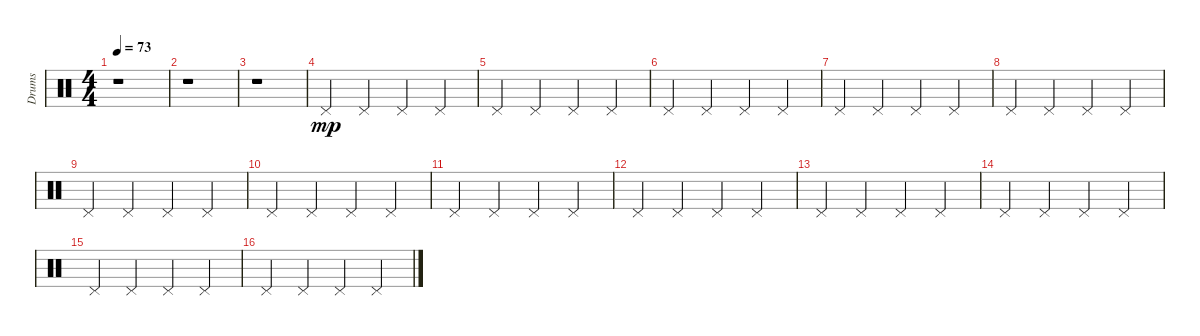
\track ("Drums" "Drums") {instrument percussion}
\staff {score}
\articulation defaults
\ts (4 4)
\tempo 73
\clef neutral
\ks c
r.1{dy mp} |
r.1 |
r.1 |
"Pedal Hi-Hat (hit)".4 "Pedal Hi-Hat (hit)".4 "Pedal Hi-Hat (hit)".4 "Pedal Hi-Hat (hit)".4 |
"Pedal Hi-Hat (hit)".4 "Pedal Hi-Hat (hit)".4 "Pedal Hi-Hat (hit)".4 "Pedal Hi-Hat (hit)".4 |
"Pedal Hi-Hat (hit)".4 "Pedal Hi-Hat (hit)".4 "Pedal Hi-Hat (hit)".4 "Pedal Hi-Hat (hit)".4 |
"Pedal Hi-Hat (hit)".4 "Pedal Hi-Hat (hit)".4 "Pedal Hi-Hat (hit)".4 "Pedal Hi-Hat (hit)".4 |
"Pedal Hi-Hat (hit)".4 "Pedal Hi-Hat (hit)".4 "Pedal Hi-Hat (hit)".4 "Pedal Hi-Hat (hit)".4 |
"Pedal Hi-Hat (hit)".4 "Pedal Hi-Hat (hit)".4 "Pedal Hi-Hat (hit)".4 "Pedal Hi-Hat (hit)".4 |
"Pedal Hi-Hat (hit)".4 "Pedal Hi-Hat (hit)".4 "Pedal Hi-Hat (hit)".4 "Pedal Hi-Hat (hit)".4 |
"Pedal Hi-Hat (hit)".4 "Pedal Hi-Hat (hit)".4 "Pedal Hi-Hat (hit)".4 "Pedal Hi-Hat (hit)".4 |
"Pedal Hi-Hat (hit)".4 "Pedal Hi-Hat (hit)".4 "Pedal Hi-Hat (hit)".4 "Pedal Hi-Hat (hit)".4 |
"Pedal Hi-Hat (hit)".4 "Pedal Hi-Hat (hit)".4 "Pedal Hi-Hat (hit)".4 "Pedal Hi-Hat (hit)".4 |
"Pedal Hi-Hat (hit)".4 "Pedal Hi-Hat (hit)".4 "Pedal Hi-Hat (hit)".4 "Pedal Hi-Hat (hit)".4 |
"Pedal Hi-Hat (hit)".4 "Pedal Hi-Hat (hit)".4 "Pedal Hi-Hat (hit)".4 "Pedal Hi-Hat (hit)".4 |
"Pedal Hi-Hat (hit)".4 "Pedal Hi-Hat (hit)".4 "Pedal Hi-Hat (hit)".4 "Pedal Hi-Hat (hit)".4
